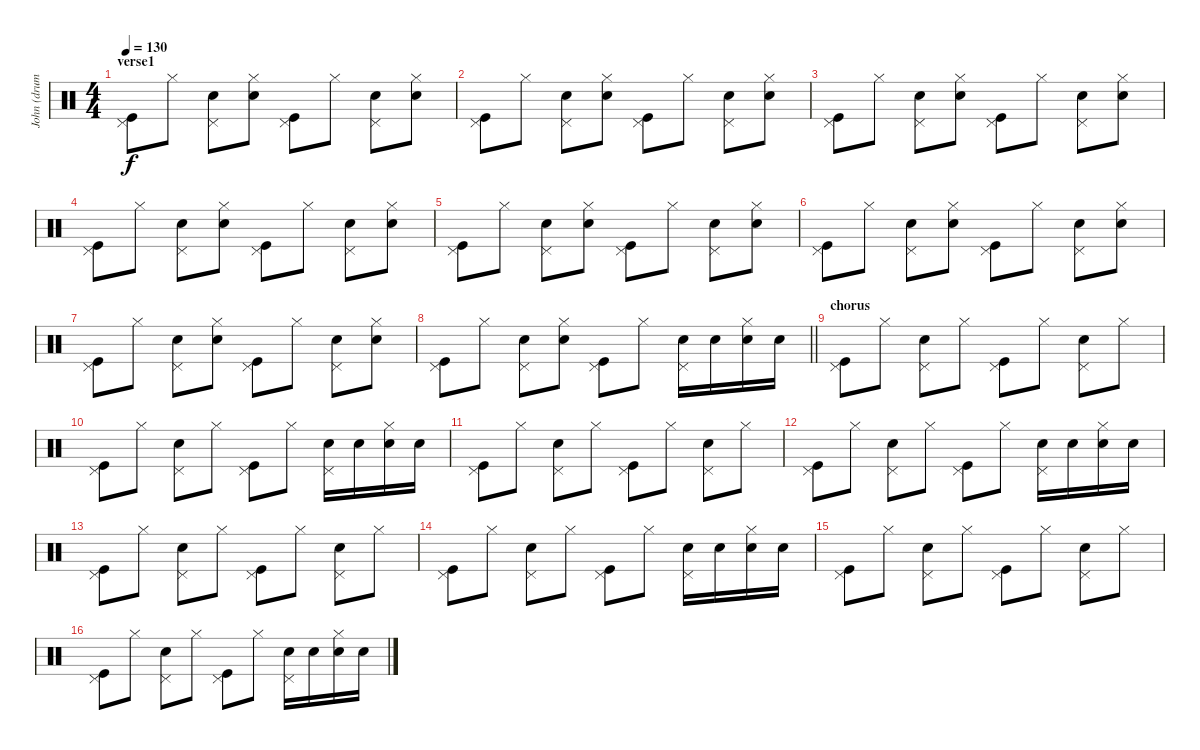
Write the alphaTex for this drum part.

\track ("John (drums)" "John (drum") {instrument percussion}
\staff {score}
\articulation defaults
\ts (4 4)
\section ("" "verse1")
\tempo 130
\clef neutral
\ks c
("Pedal Hi-Hat (hit)" "Kick (hit)").8{dy f} "Hi-Hat (closed)".8 ("Pedal Hi-Hat (hit)" "Electric Snare (hit)").8 ("Hi-Hat (closed)" "Electric Snare (hit)").8 ("Pedal Hi-Hat (hit)" "Kick (hit)").8 "Hi-Hat (closed)".8 ("Pedal Hi-Hat (hit)" "Electric Snare (hit)").8 ("Hi-Hat (closed)" "Electric Snare (hit)").8 |
("Pedal Hi-Hat (hit)" "Kick (hit)").8 "Hi-Hat (closed)".8 ("Pedal Hi-Hat (hit)" "Electric Snare (hit)").8 ("Hi-Hat (closed)" "Electric Snare (hit)").8 ("Pedal Hi-Hat (hit)" "Kick (hit)").8 "Hi-Hat (closed)".8 ("Pedal Hi-Hat (hit)" "Electric Snare (hit)").8 ("Hi-Hat (closed)" "Electric Snare (hit)").8 |
("Pedal Hi-Hat (hit)" "Kick (hit)").8 "Hi-Hat (closed)".8 ("Pedal Hi-Hat (hit)" "Electric Snare (hit)").8 ("Hi-Hat (closed)" "Electric Snare (hit)").8 ("Pedal Hi-Hat (hit)" "Kick (hit)").8 "Hi-Hat (closed)".8 ("Pedal Hi-Hat (hit)" "Electric Snare (hit)").8 ("Hi-Hat (closed)" "Electric Snare (hit)").8 |
("Pedal Hi-Hat (hit)" "Kick (hit)").8 "Hi-Hat (closed)".8 ("Pedal Hi-Hat (hit)" "Electric Snare (hit)").8 ("Hi-Hat (closed)" "Electric Snare (hit)").8 ("Pedal Hi-Hat (hit)" "Kick (hit)").8 "Hi-Hat (closed)".8 ("Pedal Hi-Hat (hit)" "Electric Snare (hit)").8 ("Hi-Hat (closed)" "Electric Snare (hit)").8 |
("Pedal Hi-Hat (hit)" "Kick (hit)").8 "Hi-Hat (closed)".8 ("Pedal Hi-Hat (hit)" "Electric Snare (hit)").8 ("Hi-Hat (closed)" "Electric Snare (hit)").8 ("Pedal Hi-Hat (hit)" "Kick (hit)").8 "Hi-Hat (closed)".8 ("Pedal Hi-Hat (hit)" "Electric Snare (hit)").8 ("Hi-Hat (closed)" "Electric Snare (hit)").8 |
("Pedal Hi-Hat (hit)" "Kick (hit)").8 "Hi-Hat (closed)".8 ("Pedal Hi-Hat (hit)" "Electric Snare (hit)").8 ("Hi-Hat (closed)" "Electric Snare (hit)").8 ("Pedal Hi-Hat (hit)" "Kick (hit)").8 "Hi-Hat (closed)".8 ("Pedal Hi-Hat (hit)" "Electric Snare (hit)").8 ("Hi-Hat (closed)" "Electric Snare (hit)").8 |
("Pedal Hi-Hat (hit)" "Kick (hit)").8 "Hi-Hat (closed)".8 ("Pedal Hi-Hat (hit)" "Electric Snare (hit)").8 ("Hi-Hat (closed)" "Electric Snare (hit)").8 ("Pedal Hi-Hat (hit)" "Kick (hit)").8 "Hi-Hat (closed)".8 ("Pedal Hi-Hat (hit)" "Electric Snare (hit)").8 ("Hi-Hat (closed)" "Electric Snare (hit)").8 |
\barLineRight lightlight
("Pedal Hi-Hat (hit)" "Kick (hit)").8 "Hi-Hat (closed)".8 ("Pedal Hi-Hat (hit)" "Electric Snare (hit)").8 ("Hi-Hat (closed)" "Electric Snare (hit)").8 ("Pedal Hi-Hat (hit)" "Kick (hit)").8 "Hi-Hat (closed)".8 ("Pedal Hi-Hat (hit)" "Electric Snare (hit)").16 "Electric Snare (hit)".16 ("Hi-Hat (closed)" "Electric Snare (hit)").16 "Electric Snare (hit)".16 |
\section ("" "chorus")
("Pedal Hi-Hat (hit)" "Kick (hit)").8 "Hi-Hat (closed)".8 ("Pedal Hi-Hat (hit)" "Electric Snare (hit)").8 "Hi-Hat (closed)".8 ("Pedal Hi-Hat (hit)" "Kick (hit)").8 "Hi-Hat (closed)".8 ("Pedal Hi-Hat (hit)" "Electric Snare (hit)").8 "Hi-Hat (closed)".8 |
("Pedal Hi-Hat (hit)" "Kick (hit)").8 "Hi-Hat (closed)".8 ("Pedal Hi-Hat (hit)" "Electric Snare (hit)").8 "Hi-Hat (closed)".8 ("Pedal Hi-Hat (hit)" "Kick (hit)").8 "Hi-Hat (closed)".8 ("Pedal Hi-Hat (hit)" "Electric Snare (hit)").16 "Electric Snare (hit)".16 ("Hi-Hat (closed)" "Electric Snare (hit)").16 "Electric Snare (hit)".16 |
("Pedal Hi-Hat (hit)" "Kick (hit)").8 "Hi-Hat (closed)".8 ("Pedal Hi-Hat (hit)" "Electric Snare (hit)").8 "Hi-Hat (closed)".8 ("Pedal Hi-Hat (hit)" "Kick (hit)").8 "Hi-Hat (closed)".8 ("Pedal Hi-Hat (hit)" "Electric Snare (hit)").8 "Hi-Hat (closed)".8 |
("Pedal Hi-Hat (hit)" "Kick (hit)").8 "Hi-Hat (closed)".8 ("Pedal Hi-Hat (hit)" "Electric Snare (hit)").8 "Hi-Hat (closed)".8 ("Pedal Hi-Hat (hit)" "Kick (hit)").8 "Hi-Hat (closed)".8 ("Pedal Hi-Hat (hit)" "Electric Snare (hit)").16 "Electric Snare (hit)".16 ("Hi-Hat (closed)" "Electric Snare (hit)").16 "Electric Snare (hit)".16 |
("Pedal Hi-Hat (hit)" "Kick (hit)").8 "Hi-Hat (closed)".8 ("Pedal Hi-Hat (hit)" "Electric Snare (hit)").8 "Hi-Hat (closed)".8 ("Pedal Hi-Hat (hit)" "Kick (hit)").8 "Hi-Hat (closed)".8 ("Pedal Hi-Hat (hit)" "Electric Snare (hit)").8 "Hi-Hat (closed)".8 |
("Pedal Hi-Hat (hit)" "Kick (hit)").8 "Hi-Hat (closed)".8 ("Pedal Hi-Hat (hit)" "Electric Snare (hit)").8 "Hi-Hat (closed)".8 ("Pedal Hi-Hat (hit)" "Kick (hit)").8 "Hi-Hat (closed)".8 ("Pedal Hi-Hat (hit)" "Electric Snare (hit)").16 "Electric Snare (hit)".16 ("Hi-Hat (closed)" "Electric Snare (hit)").16 "Electric Snare (hit)".16 |
("Pedal Hi-Hat (hit)" "Kick (hit)").8 "Hi-Hat (closed)".8 ("Pedal Hi-Hat (hit)" "Electric Snare (hit)").8 "Hi-Hat (closed)".8 ("Pedal Hi-Hat (hit)" "Kick (hit)").8 "Hi-Hat (closed)".8 ("Pedal Hi-Hat (hit)" "Electric Snare (hit)").8 "Hi-Hat (closed)".8 |
("Pedal Hi-Hat (hit)" "Kick (hit)").8 "Hi-Hat (closed)".8 ("Pedal Hi-Hat (hit)" "Electric Snare (hit)").8 "Hi-Hat (closed)".8 ("Pedal Hi-Hat (hit)" "Kick (hit)").8 "Hi-Hat (closed)".8 ("Pedal Hi-Hat (hit)" "Electric Snare (hit)").16 "Electric Snare (hit)".16 ("Hi-Hat (closed)" "Electric Snare (hit)").16 "Electric Snare (hit)".16
